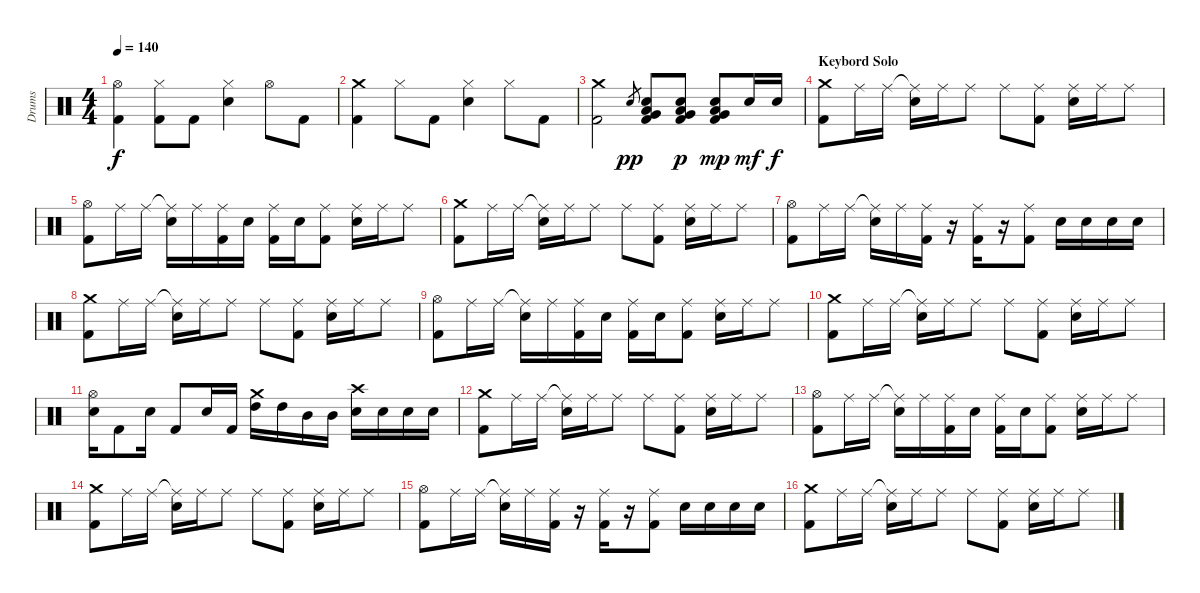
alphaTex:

\track ("Drums" "Drums") {instrument percussion}
\staff {score}
\articulation defaults
\ts (4 4)
\tempo 140
\clef neutral
\ks c
("Hi-Hat (open)" "Kick (hit) 2").4{dy f} ("Hi-Hat (closed)" "Kick (hit) 2").8 "Kick (hit) 2".8 ("Hi-Hat (closed)" "Snare (hit) 2").4 "Hi-Hat (open)".8 "Kick (hit) 2".8 |
("Crash medium (hit)" "Kick (hit) 2").4 "Hi-Hat (closed)".8 "Kick (hit) 2".8 ("Hi-Hat (closed)" "Snare (hit) 2").4 "Hi-Hat (closed)".8 "Kick (hit) 2".8 |
("Crash medium (hit)" "Kick (hit) 2").2 "Snare (hit) 2".8{gr dy pp} ("Very Low Tom (hit)" "Low Floor Tom (hit)" "Snare (hit) 2" "Kick (hit) 2").8 ("Very Low Tom (hit)" "Low Floor Tom (hit)" "Snare (hit) 2" "Kick (hit) 2").8{dy p} ("Very Low Tom (hit)" "Low Floor Tom (hit)" "Snare (hit) 2" "Kick (hit) 2").8{dy mp} "Snare (hit) 2".16{dy mf} "Snare (hit) 2".16{dy f} |
\section ("" "Keybord Solo")
("Crash medium (hit)" "Kick (hit) 2").8 "Ride (middle)".16 "Ride (middle)".16 ("Ride (middle)"{t} "Snare (hit) 2").16 "Ride (middle)".16 "Ride (middle)".8 "Ride (middle)".8 ("Ride (middle)" "Kick (hit) 2").8 ("Ride (middle)" "Snare (hit) 2").16 "Ride (middle)".16 "Ride (middle)".8 |
("Hi-Hat (open)" "Kick (hit) 2").8 "Ride (middle)".16 "Ride (middle)".16 ("Ride (middle)"{t} "Snare (hit) 2").16 "Ride (middle)".16 ("Ride (middle)" "Kick (hit) 2").16 "Snare (hit) 2".16 ("Ride (middle)" "Kick (hit) 2").16 "Snare (hit) 2".16 ("Ride (middle)" "Kick (hit) 2").8 ("Ride (middle)" "Snare (hit) 2").16 "Ride (middle)".16 "Ride (middle)".8 |
("Crash medium (hit)" "Kick (hit) 2").8 "Ride (middle)".16 "Ride (middle)".16 ("Ride (middle)"{t} "Snare (hit) 2").16 "Ride (middle)".16 "Ride (middle)".8 "Ride (middle)".8 ("Ride (middle)" "Kick (hit) 2").8 ("Ride (middle)" "Snare (hit) 2").16 "Ride (middle)".16 "Ride (middle)".8 |
("Hi-Hat (open)" "Kick (hit) 2").8 "Ride (middle)".16 "Ride (middle)".16 ("Ride (middle)"{t} "Snare (hit) 2").16 "Ride (middle)".16 ("Ride (middle)" "Kick (hit) 2").16 r.16 ("Ride (middle)" "Kick (hit) 2").16 r.16 ("Ride (middle)" "Kick (hit) 2").8 "Snare (hit) 2".16 "Snare (hit) 2".16 "Snare (hit) 2".16 "Snare (hit) 2".16 |
("Crash medium (hit)" "Kick (hit) 2").8 "Ride (middle)".16 "Ride (middle)".16 ("Ride (middle)"{t} "Snare (hit) 2").16 "Ride (middle)".16 "Ride (middle)".8 "Ride (middle)".8 ("Ride (middle)" "Kick (hit) 2").8 ("Ride (middle)" "Snare (hit) 2").16 "Ride (middle)".16 "Ride (middle)".8 |
("Hi-Hat (open)" "Kick (hit) 2").8 "Ride (middle)".16 "Ride (middle)".16 ("Ride (middle)"{t} "Snare (hit) 2").16 "Ride (middle)".16 ("Ride (middle)" "Kick (hit) 2").16 "Snare (hit) 2".16 ("Ride (middle)" "Kick (hit) 2").16 "Snare (hit) 2".16 ("Ride (middle)" "Kick (hit) 2").8 ("Ride (middle)" "Snare (hit) 2").16 "Ride (middle)".16 "Ride (middle)".8 |
("Crash medium (hit)" "Kick (hit) 2").8 "Ride (middle)".16 "Ride (middle)".16 ("Ride (middle)"{t} "Snare (hit) 2").16 "Ride (middle)".16 "Ride (middle)".8 "Ride (middle)".8 ("Ride (middle)" "Kick (hit) 2").8 ("Ride (middle)" "Snare (hit) 2").16 "Ride (middle)".16 "Ride (middle)".8 |
("Hi-Hat (open)" "Snare (hit) 2").16 "Kick (hit) 2".8 "Snare (hit) 2".16 "Kick (hit) 2".8 "Snare (hit) 2".16 "Kick (hit) 2".16 ("Crash medium (hit)" "High Tom (hit)").16 "High Tom (hit)".16 "Mid Tom (hit)".16 "Mid Tom (hit)".16 ("Crash high (hit)" "Snare (hit) 2").16 "Snare (hit) 2".16 "Snare (hit) 2".16 "Snare (hit) 2".16 |
("Crash medium (hit)" "Kick (hit) 2").8 "Ride (middle)".16 "Ride (middle)".16 ("Ride (middle)"{t} "Snare (hit) 2").16 "Ride (middle)".16 "Ride (middle)".8 "Ride (middle)".8 ("Ride (middle)" "Kick (hit) 2").8 ("Ride (middle)" "Snare (hit) 2").16 "Ride (middle)".16 "Ride (middle)".8 |
("Hi-Hat (open)" "Kick (hit) 2").8 "Ride (middle)".16 "Ride (middle)".16 ("Ride (middle)"{t} "Snare (hit) 2").16 "Ride (middle)".16 ("Ride (middle)" "Kick (hit) 2").16 "Snare (hit) 2".16 ("Ride (middle)" "Kick (hit) 2").16 "Snare (hit) 2".16 ("Ride (middle)" "Kick (hit) 2").8 ("Ride (middle)" "Snare (hit) 2").16 "Ride (middle)".16 "Ride (middle)".8 |
("Crash medium (hit)" "Kick (hit) 2").8 "Ride (middle)".16 "Ride (middle)".16 ("Ride (middle)"{t} "Snare (hit) 2").16 "Ride (middle)".16 "Ride (middle)".8 "Ride (middle)".8 ("Ride (middle)" "Kick (hit) 2").8 ("Ride (middle)" "Snare (hit) 2").16 "Ride (middle)".16 "Ride (middle)".8 |
("Hi-Hat (open)" "Kick (hit) 2").8 "Ride (middle)".16 "Ride (middle)".16 ("Ride (middle)"{t} "Snare (hit) 2").16 "Ride (middle)".16 ("Ride (middle)" "Kick (hit) 2").16 r.16 ("Ride (middle)" "Kick (hit) 2").16 r.16 ("Ride (middle)" "Kick (hit) 2").8 "Snare (hit) 2".16 "Snare (hit) 2".16 "Snare (hit) 2".16 "Snare (hit) 2".16 |
("Crash medium (hit)" "Kick (hit) 2").8 "Ride (middle)".16 "Ride (middle)".16 ("Ride (middle)"{t} "Snare (hit) 2").16 "Ride (middle)".16 "Ride (middle)".8 "Ride (middle)".8 ("Ride (middle)" "Kick (hit) 2").8 ("Ride (middle)" "Snare (hit) 2").16 "Ride (middle)".16 "Ride (middle)".8
